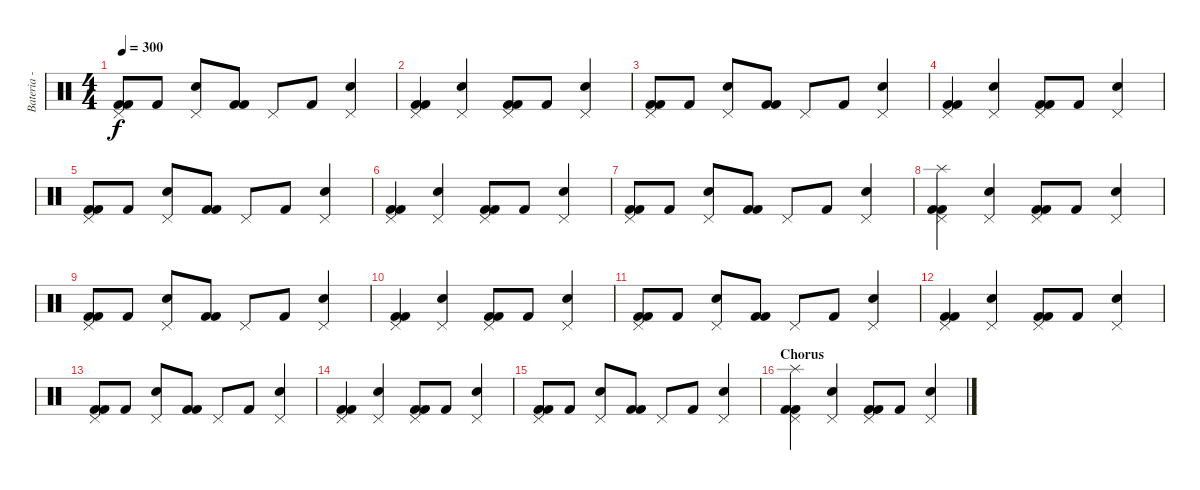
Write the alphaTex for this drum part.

\track ("Bateria - Larzon" "Bateria - ") {instrument percussion}
\staff {score}
\articulation defaults
\ts (4 4)
\tempo 300
\clef neutral
\ks c
("Pedal Hi-Hat (hit)" "Kick (hit) 2" "Kick (hit) 2").8{dy f} "Kick (hit) 2".8 ("Pedal Hi-Hat (hit)" "Snare (hit) 2").8 ("Kick (hit) 2" "Kick (hit) 2").8 "Pedal Hi-Hat (hit)".8 "Kick (hit) 2".8 ("Snare (hit) 2" "Pedal Hi-Hat (hit)").4 |
("Pedal Hi-Hat (hit)" "Kick (hit) 2" "Kick (hit) 2").4 ("Snare (hit) 2" "Pedal Hi-Hat (hit)").4 ("Kick (hit) 2" "Kick (hit) 2" "Pedal Hi-Hat (hit)").8 "Kick (hit) 2".8 ("Pedal Hi-Hat (hit)" "Snare (hit) 2").4 |
("Pedal Hi-Hat (hit)" "Kick (hit) 2" "Kick (hit) 2").8 "Kick (hit) 2".8 ("Pedal Hi-Hat (hit)" "Snare (hit) 2").8 ("Kick (hit) 2" "Kick (hit) 2").8 "Pedal Hi-Hat (hit)".8 "Kick (hit) 2".8 ("Snare (hit) 2" "Pedal Hi-Hat (hit)").4 |
("Pedal Hi-Hat (hit)" "Kick (hit) 2" "Kick (hit) 2").4 ("Snare (hit) 2" "Pedal Hi-Hat (hit)").4 ("Kick (hit) 2" "Kick (hit) 2" "Pedal Hi-Hat (hit)").8 "Kick (hit) 2".8 ("Pedal Hi-Hat (hit)" "Snare (hit) 2").4 |
("Pedal Hi-Hat (hit)" "Kick (hit) 2" "Kick (hit) 2").8 "Kick (hit) 2".8 ("Pedal Hi-Hat (hit)" "Snare (hit) 2").8 ("Kick (hit) 2" "Kick (hit) 2").8 "Pedal Hi-Hat (hit)".8 "Kick (hit) 2".8 ("Snare (hit) 2" "Pedal Hi-Hat (hit)").4 |
("Pedal Hi-Hat (hit)" "Kick (hit) 2" "Kick (hit) 2").4 ("Snare (hit) 2" "Pedal Hi-Hat (hit)").4 ("Kick (hit) 2" "Kick (hit) 2" "Pedal Hi-Hat (hit)").8 "Kick (hit) 2".8 ("Pedal Hi-Hat (hit)" "Snare (hit) 2").4 |
("Pedal Hi-Hat (hit)" "Kick (hit) 2" "Kick (hit) 2").8 "Kick (hit) 2".8 ("Pedal Hi-Hat (hit)" "Snare (hit) 2").8 ("Kick (hit) 2" "Kick (hit) 2").8 "Pedal Hi-Hat (hit)".8 "Kick (hit) 2".8 ("Snare (hit) 2" "Pedal Hi-Hat (hit)").4 |
("Splash (hit)" "Pedal Hi-Hat (hit)" "Kick (hit) 2" "Kick (hit) 2").4 ("Snare (hit) 2" "Pedal Hi-Hat (hit)").4 ("Kick (hit) 2" "Kick (hit) 2" "Pedal Hi-Hat (hit)").8 "Kick (hit) 2".8 ("Pedal Hi-Hat (hit)" "Snare (hit) 2").4 |
("Pedal Hi-Hat (hit)" "Kick (hit) 2" "Kick (hit) 2").8 "Kick (hit) 2".8 ("Pedal Hi-Hat (hit)" "Snare (hit) 2").8 ("Kick (hit) 2" "Kick (hit) 2").8 "Pedal Hi-Hat (hit)".8 "Kick (hit) 2".8 ("Snare (hit) 2" "Pedal Hi-Hat (hit)").4 |
("Pedal Hi-Hat (hit)" "Kick (hit) 2" "Kick (hit) 2").4 ("Snare (hit) 2" "Pedal Hi-Hat (hit)").4 ("Kick (hit) 2" "Kick (hit) 2" "Pedal Hi-Hat (hit)").8 "Kick (hit) 2".8 ("Pedal Hi-Hat (hit)" "Snare (hit) 2").4 |
("Pedal Hi-Hat (hit)" "Kick (hit) 2" "Kick (hit) 2").8 "Kick (hit) 2".8 ("Pedal Hi-Hat (hit)" "Snare (hit) 2").8 ("Kick (hit) 2" "Kick (hit) 2").8 "Pedal Hi-Hat (hit)".8 "Kick (hit) 2".8 ("Snare (hit) 2" "Pedal Hi-Hat (hit)").4 |
("Pedal Hi-Hat (hit)" "Kick (hit) 2" "Kick (hit) 2").4 ("Snare (hit) 2" "Pedal Hi-Hat (hit)").4 ("Kick (hit) 2" "Kick (hit) 2" "Pedal Hi-Hat (hit)").8 "Kick (hit) 2".8 ("Pedal Hi-Hat (hit)" "Snare (hit) 2").4 |
("Pedal Hi-Hat (hit)" "Kick (hit) 2" "Kick (hit) 2").8 "Kick (hit) 2".8 ("Pedal Hi-Hat (hit)" "Snare (hit) 2").8 ("Kick (hit) 2" "Kick (hit) 2").8 "Pedal Hi-Hat (hit)".8 "Kick (hit) 2".8 ("Snare (hit) 2" "Pedal Hi-Hat (hit)").4 |
("Pedal Hi-Hat (hit)" "Kick (hit) 2" "Kick (hit) 2").4 ("Snare (hit) 2" "Pedal Hi-Hat (hit)").4 ("Kick (hit) 2" "Kick (hit) 2" "Pedal Hi-Hat (hit)").8 "Kick (hit) 2".8 ("Pedal Hi-Hat (hit)" "Snare (hit) 2").4 |
("Pedal Hi-Hat (hit)" "Kick (hit) 2" "Kick (hit) 2").8 "Kick (hit) 2".8 ("Pedal Hi-Hat (hit)" "Snare (hit) 2").8 ("Kick (hit) 2" "Kick (hit) 2").8 "Pedal Hi-Hat (hit)".8 "Kick (hit) 2".8 ("Snare (hit) 2" "Pedal Hi-Hat (hit)").4 |
\section ("" "Chorus")
("Splash (hit)" "Pedal Hi-Hat (hit)" "Kick (hit) 2" "Kick (hit) 2").4 ("Snare (hit) 2" "Pedal Hi-Hat (hit)").4 ("Kick (hit) 2" "Kick (hit) 2" "Pedal Hi-Hat (hit)").8 "Kick (hit) 2".8 ("Pedal Hi-Hat (hit)" "Snare (hit) 2").4
